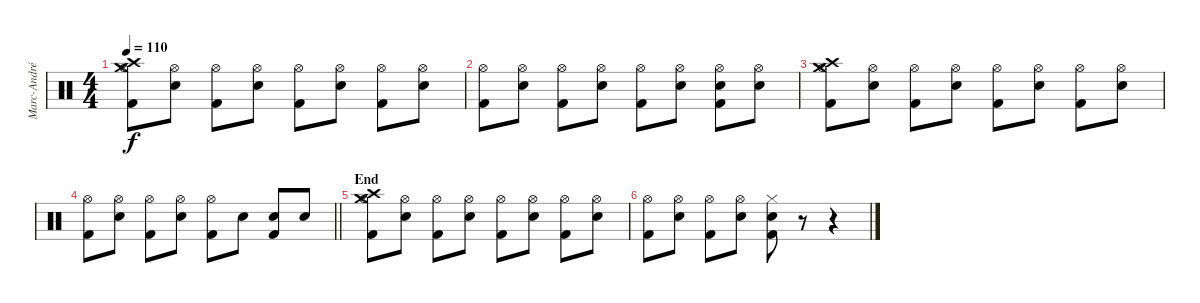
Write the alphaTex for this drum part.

\track ("Marc-André Barabé" "Marc-André") {instrument percussion}
\staff {score}
\articulation defaults
\ts (4 4)
\tempo 110
\clef neutral
\ks c
("Crash high (hit)" "Crash medium (hit)" "Hi-Hat (open)" "Kick (hit) 2"{tr (2 32)}).8{dy f} ("Hi-Hat (open)" "Electric Snare (hit)").8 ("Hi-Hat (open)" "Kick (hit) 2"{tr (2 32)}).8 ("Hi-Hat (open)" "Electric Snare (hit)").8 ("Hi-Hat (open)" "Kick (hit) 2"{tr (2 32)}).8 ("Hi-Hat (open)" "Electric Snare (hit)").8 ("Hi-Hat (open)" "Kick (hit) 2"{tr (2 32)}).8 ("Hi-Hat (open)" "Electric Snare (hit)").8 |
("Hi-Hat (open)" "Kick (hit) 2"{tr (2 32)}).8 ("Hi-Hat (open)" "Electric Snare (hit)").8 ("Hi-Hat (open)" "Kick (hit) 2"{tr (2 32)}).8 ("Hi-Hat (open)" "Electric Snare (hit)").8 ("Hi-Hat (open)" "Kick (hit) 2"{tr (2 32)}).8 ("Hi-Hat (open)" "Electric Snare (hit)").8 ("Hi-Hat (open)" "Electric Snare (hit)" "Kick (hit) 2"{tr (2 32)}).8 ("Hi-Hat (open)" "Electric Snare (hit)").8 |
("Crash high (hit)" "Crash medium (hit)" "Hi-Hat (open)" "Kick (hit) 2"{tr (2 32)}).8 ("Hi-Hat (open)" "Electric Snare (hit)").8 ("Hi-Hat (open)" "Kick (hit) 2"{tr (2 32)}).8 ("Hi-Hat (open)" "Electric Snare (hit)").8 ("Hi-Hat (open)" "Kick (hit) 2"{tr (2 32)}).8 ("Hi-Hat (open)" "Electric Snare (hit)").8 ("Hi-Hat (open)" "Kick (hit) 2"{tr (2 32)}).8 ("Hi-Hat (open)" "Electric Snare (hit)").8 |
\barLineRight lightlight
("Hi-Hat (open)" "Kick (hit) 2"{tr (2 32)}).8 ("Hi-Hat (open)" "Electric Snare (hit)").8 ("Hi-Hat (open)" "Kick (hit) 2"{tr (2 32)}).8 ("Hi-Hat (open)" "Electric Snare (hit)").8 ("Hi-Hat (open)" "Kick (hit) 2"{tr (2 32)}).8 "Electric Snare (hit)"{tr (40 32)}.8 ("Electric Snare (hit)"{tr (40 32)} "Kick (hit) 2"{tr (2 32)}).8 "Electric Snare (hit)"{tr (40 32)}.8 |
\section ("" "End")
("Crash high (hit)" "Crash medium (hit)" "Hi-Hat (open)" "Kick (hit) 2"{tr (2 32)}).8 ("Hi-Hat (open)" "Electric Snare (hit)").8 ("Hi-Hat (open)" "Kick (hit) 2"{tr (2 32)}).8 ("Hi-Hat (open)" "Electric Snare (hit)").8 ("Hi-Hat (open)" "Kick (hit) 2"{tr (2 32)}).8 ("Hi-Hat (open)" "Electric Snare (hit)").8 ("Hi-Hat (open)" "Kick (hit) 2"{tr (2 32)}).8 ("Hi-Hat (open)" "Electric Snare (hit)").8 |
("Hi-Hat (open)" "Kick (hit) 2"{tr (2 32)}).8 ("Hi-Hat (open)" "Electric Snare (hit)").8 ("Hi-Hat (open)" "Kick (hit) 2"{tr (2 32)}).8 ("Hi-Hat (open)" "Electric Snare (hit)").8 ("Hi-Hat (closed)" "Electric Snare (hit)" "Kick (hit) 2").8 r.8 r.4
